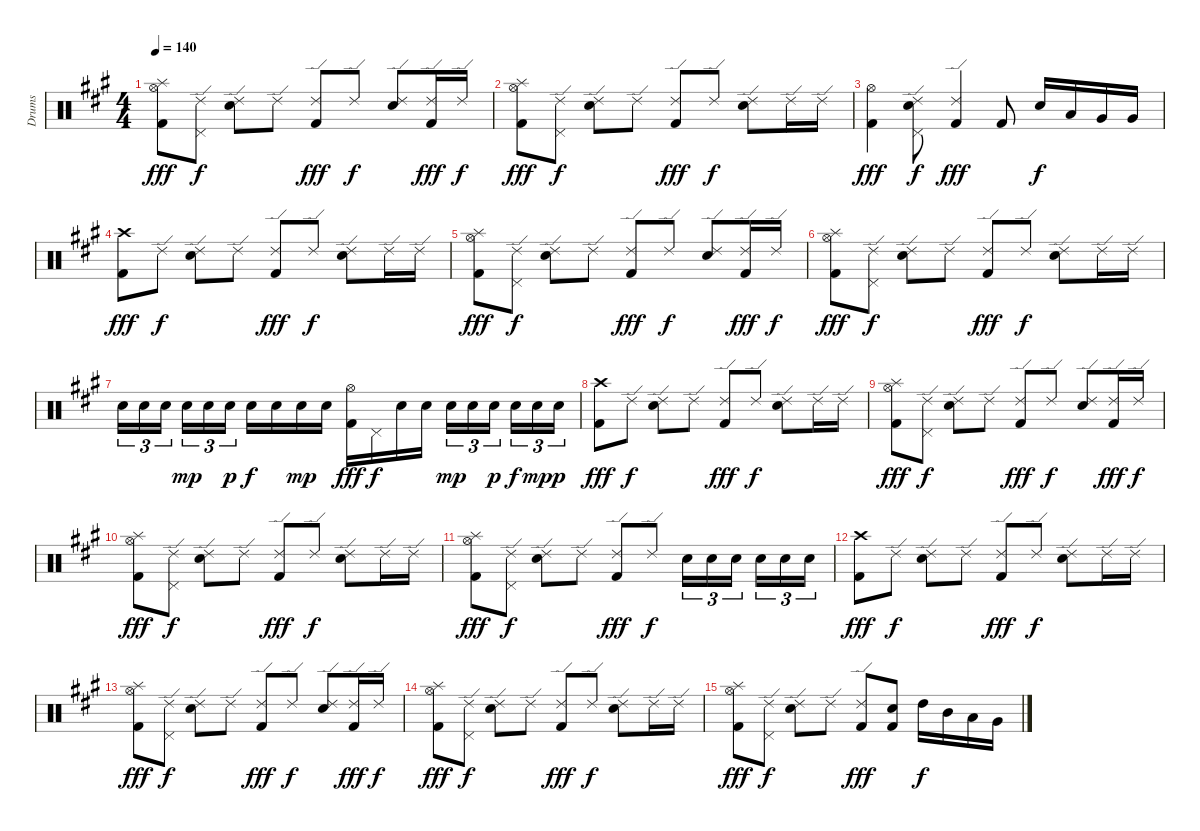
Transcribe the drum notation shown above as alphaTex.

\track ("Drums" "Drums") {instrument percussion}
\staff {score}
\articulation defaults
\ts (4 4)
\tempo 140
\clef neutral
\ks a
("Splash (hit)" "Hi-Hat (open)" "Kick (hit) 2").8{dy fff} ("Ride (edge) 2" "Pedal Hi-Hat (hit)").8{dy f} ("Ride (edge) 2" "Electric Snare (hit)").8 "Ride (edge) 2".8 ("Ride (edge) 2" "Kick (hit) 2").8{dy fff} "Ride (edge) 2".8{dy f} ("Ride (edge) 2" "Electric Snare (hit)").8 ("Ride (edge) 2" "Kick (hit) 2").16{dy fff} "Ride (edge) 2".16{dy f} |
("Splash (hit)" "Hi-Hat (open)" "Kick (hit) 2").8{dy fff} ("Ride (edge) 2" "Pedal Hi-Hat (hit)").8{dy f} ("Ride (edge) 2" "Electric Snare (hit)").8 "Ride (edge) 2".8 ("Ride (edge) 2" "Kick (hit) 2").8{dy fff} "Ride (edge) 2".8{dy f} ("Ride (edge) 2" "Electric Snare (hit)").8 "Ride (edge) 2".16 "Ride (edge) 2".16 |
("Hi-Hat (open)" "Kick (hit) 2").4{dy fff} ("Ride (edge) 2" "Pedal Hi-Hat (hit)" "Electric Snare (hit)").8{dy f} ("Ride (edge) 2" "Kick (hit) 2").4{dy fff} "Kick (hit) 2".8 "Electric Snare (hit)".16{dy f} "Low Tom (hit)".16 "Very Low Tom (hit)".16 "Very Low Tom (hit)".16 |
("Crash high (hit)" "Kick (hit) 2").8{dy fff} "Ride (edge) 2".8{dy f} ("Ride (edge) 2" "Electric Snare (hit)").8 "Ride (edge) 2".8 ("Ride (edge) 2" "Kick (hit) 2").8{dy fff} "Ride (edge) 2".8{dy f} ("Ride (edge) 2" "Electric Snare (hit)").8 "Ride (edge) 2".16 "Ride (edge) 2".16 |
("Splash (hit)" "Hi-Hat (open)" "Kick (hit) 2").8{dy fff} ("Ride (edge) 2" "Pedal Hi-Hat (hit)").8{dy f} ("Ride (edge) 2" "Electric Snare (hit)").8 "Ride (edge) 2".8 ("Ride (edge) 2" "Kick (hit) 2").8{dy fff} "Ride (edge) 2".8{dy f} ("Ride (edge) 2" "Electric Snare (hit)").8 ("Ride (edge) 2" "Kick (hit) 2").16{dy fff} "Ride (edge) 2".16{dy f} |
("Splash (hit)" "Hi-Hat (open)" "Kick (hit) 2").8{dy fff} ("Ride (edge) 2" "Pedal Hi-Hat (hit)").8{dy f} ("Ride (edge) 2" "Electric Snare (hit)").8 "Ride (edge) 2".8 ("Ride (edge) 2" "Kick (hit) 2").8{dy fff} "Ride (edge) 2".8{dy f} ("Ride (edge) 2" "Electric Snare (hit)").8 "Ride (edge) 2".16 "Ride (edge) 2".16 |
"Electric Snare (hit)".16{tu (3 2)} "Electric Snare (hit)".16{tu (3 2)} "Electric Snare (hit)".16{tu (3 2)} "Electric Snare (hit)".16{tu (3 2) dy mp} "Electric Snare (hit)".16{tu (3 2)} "Electric Snare (hit)".16{tu (3 2) dy p} "Electric Snare (hit)".16{dy f} "Electric Snare (hit)".16 "Electric Snare (hit)".16{dy mp} "Electric Snare (hit)".16 ("Hi-Hat (open)" "Kick (hit) 2").16{dy fff} "Pedal Hi-Hat (hit)".16{dy f} "Electric Snare (hit)".16 "Electric Snare (hit)".16 "Electric Snare (hit)".16{tu (3 2) dy mp} "Electric Snare (hit)".16{tu (3 2)} "Electric Snare (hit)".16{tu (3 2) dy p} "Electric Snare (hit)".16{tu (3 2) dy f} "Electric Snare (hit)".16{tu (3 2) dy mp} "Electric Snare (hit)".16{tu (3 2) dy p} |
("Crash high (hit)" "Kick (hit) 2").8{dy fff} "Ride (edge) 2".8{dy f} ("Ride (edge) 2" "Electric Snare (hit)").8 "Ride (edge) 2".8 ("Ride (edge) 2" "Kick (hit) 2").8{dy fff} "Ride (edge) 2".8{dy f} ("Ride (edge) 2" "Electric Snare (hit)").8 "Ride (edge) 2".16 "Ride (edge) 2".16 |
("Splash (hit)" "Hi-Hat (open)" "Kick (hit) 2").8{dy fff} ("Ride (edge) 2" "Pedal Hi-Hat (hit)").8{dy f} ("Ride (edge) 2" "Electric Snare (hit)").8 "Ride (edge) 2".8 ("Ride (edge) 2" "Kick (hit) 2").8{dy fff} "Ride (edge) 2".8{dy f} ("Ride (edge) 2" "Electric Snare (hit)").8 ("Ride (edge) 2" "Kick (hit) 2").16{dy fff} "Ride (edge) 2".16{dy f} |
("Splash (hit)" "Hi-Hat (open)" "Kick (hit) 2").8{dy fff} ("Ride (edge) 2" "Pedal Hi-Hat (hit)").8{dy f} ("Ride (edge) 2" "Electric Snare (hit)").8 "Ride (edge) 2".8 ("Ride (edge) 2" "Kick (hit) 2").8{dy fff} "Ride (edge) 2".8{dy f} ("Ride (edge) 2" "Electric Snare (hit)").8 "Ride (edge) 2".16 "Ride (edge) 2".16 |
("Splash (hit)" "Hi-Hat (open)" "Kick (hit) 2").8{dy fff} ("Ride (edge) 2" "Pedal Hi-Hat (hit)").8{dy f} ("Ride (edge) 2" "Electric Snare (hit)").8 "Ride (edge) 2".8 ("Ride (edge) 2" "Kick (hit) 2").8{dy fff} "Ride (edge) 2".8{dy f} "Electric Snare (hit)".16{tu (3 2)} "Electric Snare (hit)".16{tu (3 2)} "Electric Snare (hit)".16{tu (3 2)} "Electric Snare (hit)".16{tu (3 2)} "Electric Snare (hit)".16{tu (3 2)} "Electric Snare (hit)".16{tu (3 2)} |
("Crash high (hit)" "Kick (hit) 2").8{dy fff} "Ride (edge) 2".8{dy f} ("Ride (edge) 2" "Electric Snare (hit)").8 "Ride (edge) 2".8 ("Ride (edge) 2" "Kick (hit) 2").8{dy fff} "Ride (edge) 2".8{dy f} ("Ride (edge) 2" "Electric Snare (hit)").8 "Ride (edge) 2".16 "Ride (edge) 2".16 |
("Splash (hit)" "Hi-Hat (open)" "Kick (hit) 2").8{dy fff} ("Ride (edge) 2" "Pedal Hi-Hat (hit)").8{dy f} ("Ride (edge) 2" "Electric Snare (hit)").8 "Ride (edge) 2".8 ("Ride (edge) 2" "Kick (hit) 2").8{dy fff} "Ride (edge) 2".8{dy f} ("Ride (edge) 2" "Electric Snare (hit)").8 ("Ride (edge) 2" "Kick (hit) 2").16{dy fff} "Ride (edge) 2".16{dy f} |
("Splash (hit)" "Hi-Hat (open)" "Kick (hit) 2").8{dy fff} ("Ride (edge) 2" "Pedal Hi-Hat (hit)").8{dy f} ("Ride (edge) 2" "Electric Snare (hit)").8 "Ride (edge) 2".8 ("Ride (edge) 2" "Kick (hit) 2").8{dy fff} "Ride (edge) 2".8{dy f} ("Ride (edge) 2" "Electric Snare (hit)").8 "Ride (edge) 2".16 "Ride (edge) 2".16 |
("Splash (hit)" "Hi-Hat (open)" "Kick (hit) 2").8{dy fff} ("Ride (edge) 2" "Pedal Hi-Hat (hit)").8{dy f} ("Ride (edge) 2" "Electric Snare (hit)").8 "Ride (edge) 2".8 ("Ride (edge) 2" "Kick (hit) 2").8{dy fff} ("Electric Snare (hit)" "Kick (hit) 2").8 "High Tom (hit)".16{dy f} "Mid Tom (hit)".16 "Low Tom (hit)".16 "Very Low Tom (hit)".16
